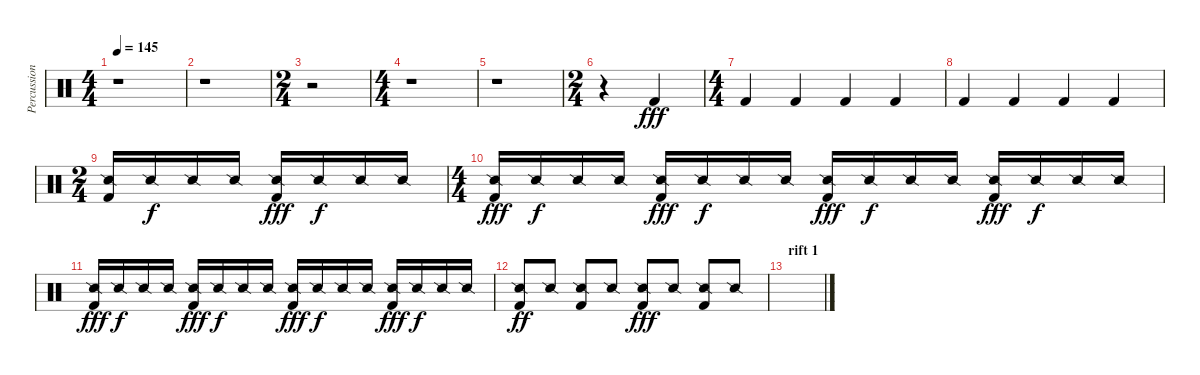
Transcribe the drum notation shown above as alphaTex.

\track ("Percussion" "Percussion") {instrument percussion}
\staff {score}
\articulation defaults
\ts (4 4)
\tempo 145
\clef neutral
\ks c
r.1{dy fff} |
r.1 |
\ts (2 4)
r.2 |
\ts (4 4)
r.1 |
r.1 |
\ts (2 4)
r.4 "Kick (hit) 2".4 |
\ts (4 4)
"Kick (hit) 2".4 "Kick (hit) 2".4 "Kick (hit) 2".4 "Kick (hit) 2".4 |
"Kick (hit) 2".4 "Kick (hit) 2".4 "Kick (hit) 2".4 "Kick (hit) 2".4 |
\ts (2 4)
("Snare (side stick) 2" "Kick (hit) 2").16 "Snare (side stick) 2".16{dy f} "Snare (side stick) 2".16 "Snare (side stick) 2".16 ("Snare (side stick) 2" "Kick (hit) 2").16{dy fff} "Snare (side stick) 2".16{dy f} "Snare (side stick) 2".16 "Snare (side stick) 2".16 |
\ts (4 4)
("Snare (side stick) 2" "Kick (hit) 2").16{dy fff} "Snare (side stick) 2".16{dy f} "Snare (side stick) 2".16 "Snare (side stick) 2".16 ("Snare (side stick) 2" "Kick (hit) 2").16{dy fff} "Snare (side stick) 2".16{dy f} "Snare (side stick) 2".16 "Snare (side stick) 2".16 ("Snare (side stick) 2" "Kick (hit) 2").16{dy fff} "Snare (side stick) 2".16{dy f} "Snare (side stick) 2".16 "Snare (side stick) 2".16 ("Snare (side stick) 2" "Kick (hit) 2").16{dy fff} "Snare (side stick) 2".16{dy f} "Snare (side stick) 2".16 "Snare (side stick) 2".16 |
("Snare (side stick) 2" "Kick (hit) 2").16{dy fff} "Snare (side stick) 2".16{dy f} "Snare (side stick) 2".16 "Snare (side stick) 2".16 ("Snare (side stick) 2" "Kick (hit) 2").16{dy fff} "Snare (side stick) 2".16{dy f} "Snare (side stick) 2".16 "Snare (side stick) 2".16 ("Snare (side stick) 2" "Kick (hit) 2").16{dy fff} "Snare (side stick) 2".16{dy f} "Snare (side stick) 2".16 "Snare (side stick) 2".16 ("Snare (side stick) 2" "Kick (hit) 2").16{dy fff} "Snare (side stick) 2".16{dy f} "Snare (side stick) 2".16 "Snare (side stick) 2".16 |
("Snare (side stick) 2" "Kick (hit) 2").8{dy ff} "Snare (side stick) 2".8 ("Snare (side stick) 2" "Kick (hit) 2").8 "Snare (side stick) 2".8 ("Snare (side stick) 2" "Kick (hit) 2").8{dy fff} "Snare (side stick) 2".8 ("Snare (side stick) 2" "Kick (hit) 2").8 "Snare (side stick) 2".8 |
\section ("" "rift 1")
